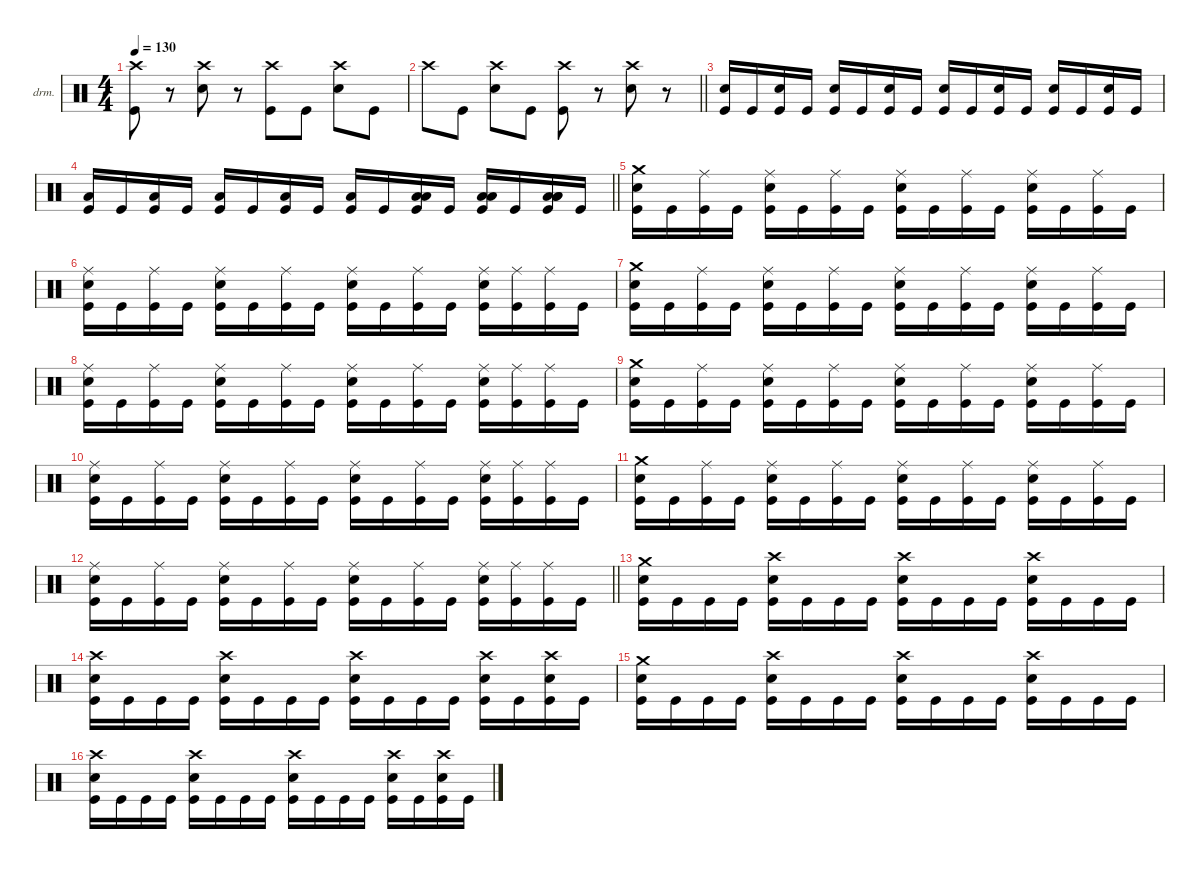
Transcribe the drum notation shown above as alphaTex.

\defaultSystemsLayout 4
\hideDynamics
\bracketExtendMode nobrackets
\firstSystemTrackNameOrientation horizontal
\otherSystemsTrackNameOrientation horizontal
\track ("Drums" "drm.") {instrument percussion}
\staff {score}
\articulation defaults
\ts (4 4)
\tempo 130
\clef neutral
\ks c
("Crash high (hit)" "Kick (hit)").8{dy f} r.8 ("Crash high (hit)" "Snare (hit) 2").8 r.8 ("Crash high (hit)" "Kick (hit)").8 "Kick (hit)".8 ("Crash high (hit)" "Snare (hit) 2").8 "Kick (hit)".8 |
\barLineRight lightlight "Crash high (hit)".8 "Kick (hit)".8
("Crash high (hit)" "Snare (hit) 2").8 "Kick (hit)".8 ("Crash high (hit)" "Kick (hit)").8 r.8 ("Crash high (hit)" "Snare (hit) 2").8 r.8 |
\section ("" " ")
("Snare (hit) 2" "Kick (hit)").16 "Kick (hit)".16 ("Snare (hit) 2" "Kick (hit)").16 "Kick (hit)".16 ("Snare (hit) 2" "Kick (hit)").16 "Kick (hit)".16 ("Snare (hit) 2" "Kick (hit)").16 "Kick (hit)".16 ("Snare (hit) 2" "Kick (hit)").16 "Kick (hit)".16 ("Snare (hit) 2" "Kick (hit)").16 "Kick (hit)".16 ("Snare (hit) 2" "Kick (hit)").16 "Kick (hit)".16 ("Snare (hit) 2" "Kick (hit)").16 "Kick (hit)".16 |
\barLineRight lightlight
("Low Tom (hit)" "Kick (hit)").16 "Kick (hit)".16 ("Low Tom (hit)" "Kick (hit)").16 "Kick (hit)".16 ("Low Tom (hit)" "Kick (hit)").16 "Kick (hit)".16 ("Low Tom (hit)" "Kick (hit)").16 "Kick (hit)".16 ("Low Tom (hit)" "Kick (hit)").16 "Kick (hit)".16 ("Low Tom (hit)" "Low Tom (hit)" "Kick (hit)").16 "Kick (hit)".16 ("Low Tom (hit)" "Low Tom (hit)" "Kick (hit)").16 "Kick (hit)".16 ("Low Tom (hit)" "Low Tom (hit)" "Low Tom (hit)" "Kick (hit)").16 "Kick (hit)".16 |
\section ("" "")
("Crash medium (hit)" "Snare (hit) 2" "Kick (hit)").16 "Kick (hit)".16 ("Ride (middle)" "Kick (hit)").16 "Kick (hit)".16 ("Ride (middle)" "Snare (hit) 2" "Kick (hit)").16 "Kick (hit)".16 ("Ride (middle)" "Kick (hit)").16 "Kick (hit)".16 ("Ride (middle)" "Snare (hit) 2" "Kick (hit)").16 "Kick (hit)".16 ("Ride (middle)" "Kick (hit)").16 "Kick (hit)".16 ("Ride (middle)" "Snare (hit) 2" "Kick (hit)").16 "Kick (hit)".16 ("Ride (middle)" "Kick (hit)").16 "Kick (hit)".16 |
("Ride (middle)" "Snare (hit) 2" "Kick (hit)").16 "Kick (hit)".16 ("Ride (middle)" "Kick (hit)").16 "Kick (hit)".16 ("Ride (middle)" "Snare (hit) 2" "Kick (hit)").16 "Kick (hit)".16 ("Ride (middle)" "Kick (hit)").16 "Kick (hit)".16 ("Ride (middle)" "Snare (hit) 2" "Kick (hit)").16 "Kick (hit)".16 ("Ride (middle)" "Kick (hit)").16 "Kick (hit)".16 ("Ride (middle)" "Snare (hit) 2" "Kick (hit)").16 ("Ride (middle)" "Kick (hit)").16 ("Ride (middle)" "Kick (hit)").16 "Kick (hit)".16 |
("Crash medium (hit)" "Snare (hit) 2" "Kick (hit)").16 "Kick (hit)".16 ("Ride (middle)" "Kick (hit)").16 "Kick (hit)".16 ("Ride (middle)" "Snare (hit) 2" "Kick (hit)").16 "Kick (hit)".16 ("Ride (middle)" "Kick (hit)").16 "Kick (hit)".16 ("Ride (middle)" "Snare (hit) 2" "Kick (hit)").16 "Kick (hit)".16 ("Ride (middle)" "Kick (hit)").16 "Kick (hit)".16 ("Ride (middle)" "Snare (hit) 2" "Kick (hit)").16 "Kick (hit)".16 ("Ride (middle)" "Kick (hit)").16 "Kick (hit)".16 |
("Ride (middle)" "Snare (hit) 2" "Kick (hit)").16 "Kick (hit)".16 ("Ride (middle)" "Kick (hit)").16 "Kick (hit)".16 ("Ride (middle)" "Snare (hit) 2" "Kick (hit)").16 "Kick (hit)".16 ("Ride (middle)" "Kick (hit)").16 "Kick (hit)".16 ("Ride (middle)" "Snare (hit) 2" "Kick (hit)").16 "Kick (hit)".16 ("Ride (middle)" "Kick (hit)").16 "Kick (hit)".16 ("Ride (middle)" "Snare (hit) 2" "Kick (hit)").16 ("Ride (middle)" "Kick (hit)").16 ("Ride (middle)" "Kick (hit)").16 "Kick (hit)".16 |
("Crash medium (hit)" "Snare (hit) 2" "Kick (hit)").16 "Kick (hit)".16 ("Ride (middle)" "Kick (hit)").16 "Kick (hit)".16 ("Ride (middle)" "Snare (hit) 2" "Kick (hit)").16 "Kick (hit)".16 ("Ride (middle)" "Kick (hit)").16 "Kick (hit)".16 ("Ride (middle)" "Snare (hit) 2" "Kick (hit)").16 "Kick (hit)".16 ("Ride (middle)" "Kick (hit)").16 "Kick (hit)".16 ("Ride (middle)" "Snare (hit) 2" "Kick (hit)").16 "Kick (hit)".16 ("Ride (middle)" "Kick (hit)").16 "Kick (hit)".16 |
("Ride (middle)" "Snare (hit) 2" "Kick (hit)").16 "Kick (hit)".16 ("Ride (middle)" "Kick (hit)").16 "Kick (hit)".16 ("Ride (middle)" "Snare (hit) 2" "Kick (hit)").16 "Kick (hit)".16 ("Ride (middle)" "Kick (hit)").16 "Kick (hit)".16 ("Ride (middle)" "Snare (hit) 2" "Kick (hit)").16 "Kick (hit)".16 ("Ride (middle)" "Kick (hit)").16 "Kick (hit)".16 ("Ride (middle)" "Snare (hit) 2" "Kick (hit)").16 ("Ride (middle)" "Kick (hit)").16 ("Ride (middle)" "Kick (hit)").16 "Kick (hit)".16 |
("Crash medium (hit)" "Snare (hit) 2" "Kick (hit)").16 "Kick (hit)".16 ("Ride (middle)" "Kick (hit)").16 "Kick (hit)".16 ("Ride (middle)" "Snare (hit) 2" "Kick (hit)").16 "Kick (hit)".16 ("Ride (middle)" "Kick (hit)").16 "Kick (hit)".16 ("Ride (middle)" "Snare (hit) 2" "Kick (hit)").16 "Kick (hit)".16 ("Ride (middle)" "Kick (hit)").16 "Kick (hit)".16 ("Ride (middle)" "Snare (hit) 2" "Kick (hit)").16 "Kick (hit)".16 ("Ride (middle)" "Kick (hit)").16 "Kick (hit)".16 |
\barLineRight lightlight
("Ride (middle)" "Snare (hit) 2" "Kick (hit)").16 "Kick (hit)".16 ("Ride (middle)" "Kick (hit)").16 "Kick (hit)".16 ("Ride (middle)" "Snare (hit) 2" "Kick (hit)").16 "Kick (hit)".16 ("Ride (middle)" "Kick (hit)").16 "Kick (hit)".16 ("Ride (middle)" "Snare (hit) 2" "Kick (hit)").16 "Kick (hit)".16 ("Ride (middle)" "Kick (hit)").16 "Kick (hit)".16 ("Ride (middle)" "Snare (hit) 2" "Kick (hit)").16 ("Ride (middle)" "Kick (hit)").16 ("Ride (middle)" "Kick (hit)").16 "Kick (hit)".16 |
\section ("" "")
("Crash medium (hit)" "Snare (hit) 2" "Kick (hit)").16 "Kick (hit)".16 "Kick (hit)".16 "Kick (hit)".16 ("Crash high (hit)" "Snare (hit) 2" "Kick (hit)").16 "Kick (hit)".16 "Kick (hit)".16 "Kick (hit)".16 ("Crash high (hit)" "Snare (hit) 2" "Kick (hit)").16 "Kick (hit)".16 "Kick (hit)".16 "Kick (hit)".16 ("Crash high (hit)" "Snare (hit) 2" "Kick (hit)").16 "Kick (hit)".16 "Kick (hit)".16 "Kick (hit)".16 |
("Crash high (hit)" "Snare (hit) 2" "Kick (hit)").16 "Kick (hit)".16 "Kick (hit)".16 "Kick (hit)".16 ("Crash high (hit)" "Snare (hit) 2" "Kick (hit)").16 "Kick (hit)".16 "Kick (hit)".16 "Kick (hit)".16 ("Crash high (hit)" "Snare (hit) 2" "Kick (hit)").16 "Kick (hit)".16 "Kick (hit)".16 "Kick (hit)".16 ("Crash high (hit)" "Snare (hit) 2" "Kick (hit)").16 "Kick (hit)".16 ("Crash high (hit)" "Snare (hit) 2" "Kick (hit)").16 "Kick (hit)".16 |
("Crash medium (hit)" "Snare (hit) 2" "Kick (hit)").16 "Kick (hit)".16 "Kick (hit)".16 "Kick (hit)".16 ("Crash high (hit)" "Snare (hit) 2" "Kick (hit)").16 "Kick (hit)".16 "Kick (hit)".16 "Kick (hit)".16 ("Crash high (hit)" "Snare (hit) 2" "Kick (hit)").16 "Kick (hit)".16 "Kick (hit)".16 "Kick (hit)".16 ("Crash high (hit)" "Snare (hit) 2" "Kick (hit)").16 "Kick (hit)".16 "Kick (hit)".16 "Kick (hit)".16 |
("Crash high (hit)" "Snare (hit) 2" "Kick (hit)").16 "Kick (hit)".16 "Kick (hit)".16 "Kick (hit)".16 ("Crash high (hit)" "Snare (hit) 2" "Kick (hit)").16 "Kick (hit)".16 "Kick (hit)".16 "Kick (hit)".16 ("Crash high (hit)" "Snare (hit) 2" "Kick (hit)").16 "Kick (hit)".16 "Kick (hit)".16 "Kick (hit)".16 ("Crash high (hit)" "Snare (hit) 2" "Kick (hit)").16 "Kick (hit)".16 ("Crash high (hit)" "Snare (hit) 2" "Kick (hit)").16 "Kick (hit)".16
